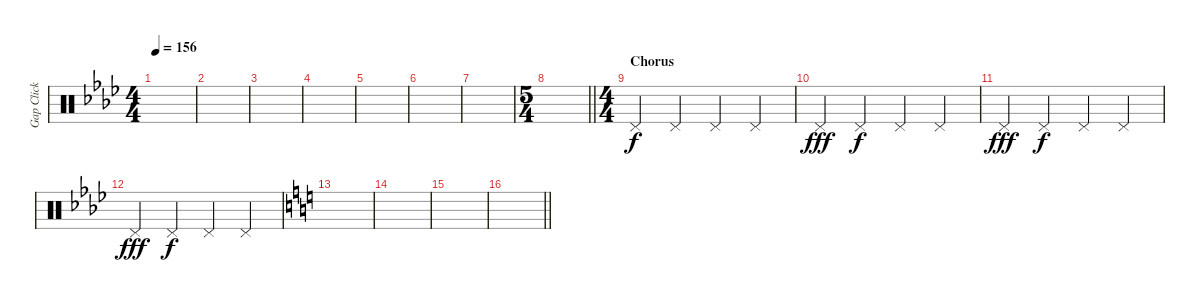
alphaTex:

\track ("Gap Click" "Gap Click") {instrument percussion}
\staff {score}
\articulation defaults
\ts (4 4)
\tempo 156
\clef neutral
\ks ab
|
|
|
|
|
|
|
\ts (5 4)
\barLineRight lightlight
|
\ts (4 4)
\section ("" "Chorus")
"Pedal Hi-Hat (hit)".4 "Pedal Hi-Hat (hit)".4{dy f} "Pedal Hi-Hat (hit)".4 "Pedal Hi-Hat (hit)".4 |
"Pedal Hi-Hat (hit)".4{dy fff} "Pedal Hi-Hat (hit)".4{dy f} "Pedal Hi-Hat (hit)".4 "Pedal Hi-Hat (hit)".4 |
"Pedal Hi-Hat (hit)".4{dy fff} "Pedal Hi-Hat (hit)".4{dy f} "Pedal Hi-Hat (hit)".4 "Pedal Hi-Hat (hit)".4 |
"Pedal Hi-Hat (hit)".4{dy fff} "Pedal Hi-Hat (hit)".4{dy f} "Pedal Hi-Hat (hit)".4 "Pedal Hi-Hat (hit)".4 |
\ks c
|
|
|
\barLineRight lightlight
